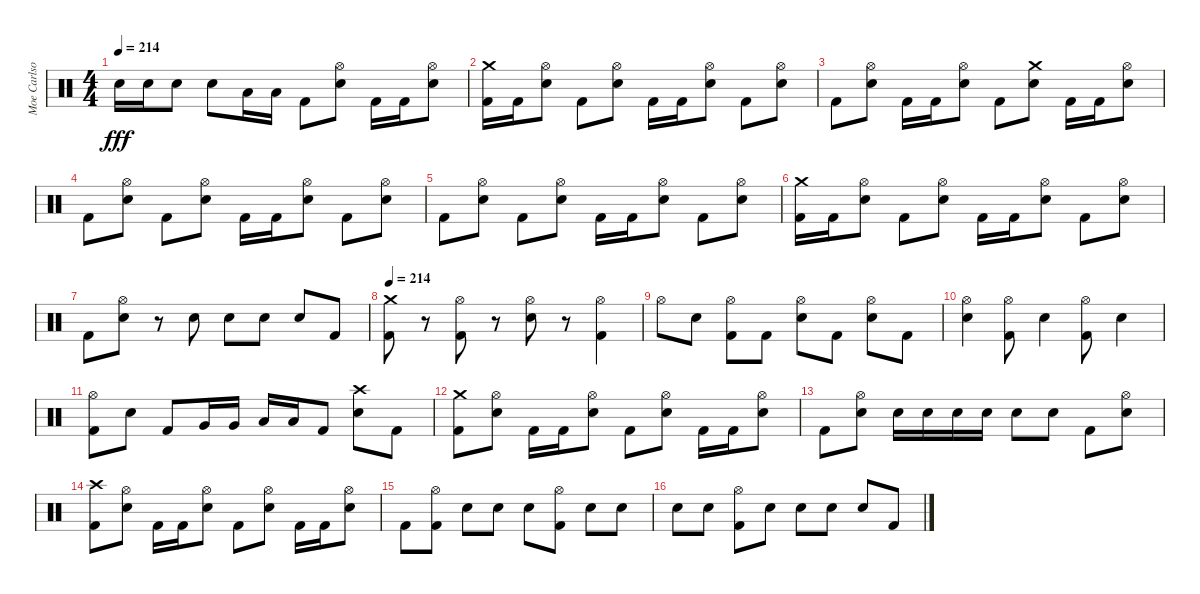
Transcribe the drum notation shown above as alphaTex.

\track ("Moe Carlson" "Moe Carlso") {instrument percussion}
\staff {score}
\articulation defaults
\ts (4 4)
\tempo 214
\clef neutral
\ks c "Electric Snare (hit)".16{dy fff} "Electric Snare (hit)".16 "Electric Snare (hit)".8 "Electric Snare (hit)".8 "Low Tom (hit)".16 "Low Tom (hit)".16 "Kick (hit) 2".8
("Hi-Hat (open)" "Electric Snare (hit)").8 "Kick (hit) 2".16 "Kick (hit) 2".16 ("Hi-Hat (open)" "Electric Snare (hit)").8 |
("Crash medium (hit)" "Kick (hit) 2").16 "Kick (hit) 2".16 ("Hi-Hat (open)" "Electric Snare (hit)").8 "Kick (hit) 2".8 ("Hi-Hat (open)" "Electric Snare (hit)").8 "Kick (hit) 2".16 "Kick (hit) 2".16 ("Hi-Hat (open)" "Electric Snare (hit)").8 "Kick (hit) 2".8 ("Hi-Hat (open)" "Electric Snare (hit)").8 |
"Kick (hit) 2".8 ("Hi-Hat (open)" "Electric Snare (hit)").8 "Kick (hit) 2".16 "Kick (hit) 2".16 ("Hi-Hat (open)" "Electric Snare (hit)").8 "Kick (hit) 2".8 ("Crash medium (hit)" "Electric Snare (hit)").8 "Kick (hit) 2".16 "Kick (hit) 2".16 ("Hi-Hat (open)" "Electric Snare (hit)").8 |
"Kick (hit) 2".8 ("Hi-Hat (open)" "Electric Snare (hit)").8 "Kick (hit) 2".8 ("Hi-Hat (open)" "Electric Snare (hit)").8 "Kick (hit) 2".16 "Kick (hit) 2".16 ("Hi-Hat (open)" "Electric Snare (hit)").8 "Kick (hit) 2".8 ("Hi-Hat (open)" "Electric Snare (hit)").8 |
"Kick (hit) 2".8 ("Hi-Hat (open)" "Electric Snare (hit)").8 "Kick (hit) 2".8 ("Hi-Hat (open)" "Electric Snare (hit)").8 "Kick (hit) 2".16 "Kick (hit) 2".16 ("Hi-Hat (open)" "Electric Snare (hit)").8 "Kick (hit) 2".8 ("Hi-Hat (open)" "Electric Snare (hit)").8 |
("Crash medium (hit)" "Kick (hit) 2").16 "Kick (hit) 2".16 ("Hi-Hat (open)" "Electric Snare (hit)").8 "Kick (hit) 2".8 ("Hi-Hat (open)" "Electric Snare (hit)").8 "Kick (hit) 2".16 "Kick (hit) 2".16 ("Hi-Hat (open)" "Electric Snare (hit)").8 "Kick (hit) 2".8 ("Hi-Hat (open)" "Electric Snare (hit)").8 |
"Kick (hit) 2".8 ("Hi-Hat (open)" "Electric Snare (hit)").8 r.8 "Electric Snare (hit)".8 "Electric Snare (hit)".8 "Electric Snare (hit)".8 "Electric Snare (hit)".8 "Kick (hit) 2".8 |
\tempo 214
("Crash medium (hit)" "Kick (hit) 2").8 r.8 ("Hi-Hat (open)" "Kick (hit) 2").8 r.8 ("Hi-Hat (open)" "Electric Snare (hit)").8 r.8 ("Hi-Hat (open)" "Kick (hit) 2").4 |
"Hi-Hat (open)".8 "Electric Snare (hit)".8 ("Hi-Hat (open)" "Kick (hit) 2").8 "Kick (hit) 2".8 ("Hi-Hat (open)" "Electric Snare (hit)").8 "Kick (hit) 2".8 ("Hi-Hat (open)" "Electric Snare (hit)").8 "Kick (hit) 2".8 |
("Hi-Hat (open)" "Electric Snare (hit)").4 ("Hi-Hat (open)" "Kick (hit) 2").8 "Electric Snare (hit)".4 ("Hi-Hat (open)" "Kick (hit) 2").8 "Electric Snare (hit)".4 |
("Hi-Hat (open)" "Kick (hit) 2").8 "Electric Snare (hit)".8 "Kick (hit) 2".8 "Very Low Tom (hit)".16 "Very Low Tom (hit)".16 "Low Floor Tom (hit)".16 "Low Floor Tom (hit)".16 "Kick (hit) 2".8 ("Crash high (hit)" "Electric Snare (hit)").8 "Kick (hit) 2".8 |
("Crash medium (hit)" "Kick (hit) 2").8 ("Hi-Hat (open)" "Electric Snare (hit)").8 "Kick (hit) 2".16 "Kick (hit) 2".16 ("Hi-Hat (open)" "Electric Snare (hit)").8 "Kick (hit) 2".8 ("Hi-Hat (open)" "Electric Snare (hit)").8 "Kick (hit) 2".16 "Kick (hit) 2".16 ("Hi-Hat (open)" "Electric Snare (hit)").8 |
"Kick (hit) 2".8 ("Hi-Hat (open)" "Electric Snare (hit)").8 "Electric Snare (hit)".16 "Electric Snare (hit)".16 "Electric Snare (hit)".16 "Electric Snare (hit)".16 "Electric Snare (hit)".8 "Electric Snare (hit)".8 "Kick (hit) 2".8 ("Hi-Hat (open)" "Electric Snare (hit)").8 |
("Crash high (hit)" "Kick (hit) 2").8 ("Hi-Hat (open)" "Electric Snare (hit)").8 "Kick (hit) 2".16 "Kick (hit) 2".16 ("Hi-Hat (open)" "Electric Snare (hit)").8 "Kick (hit) 2".8 ("Hi-Hat (open)" "Electric Snare (hit)").8 "Kick (hit) 2".16 "Kick (hit) 2".16 ("Hi-Hat (open)" "Electric Snare (hit)").8 |
"Kick (hit) 2".8 ("Hi-Hat (open)" "Kick (hit) 2").8 "Electric Snare (hit)".8 "Electric Snare (hit)".8 "Electric Snare (hit)".8 ("Hi-Hat (open)" "Kick (hit) 2").8 "Electric Snare (hit)".8 "Electric Snare (hit)".8 |
"Electric Snare (hit)".8 "Electric Snare (hit)".8 ("Hi-Hat (open)" "Kick (hit) 2").8 "Electric Snare (hit)".8 "Electric Snare (hit)".8 "Electric Snare (hit)".8 "Electric Snare (hit)".8 "Kick (hit) 2".8
